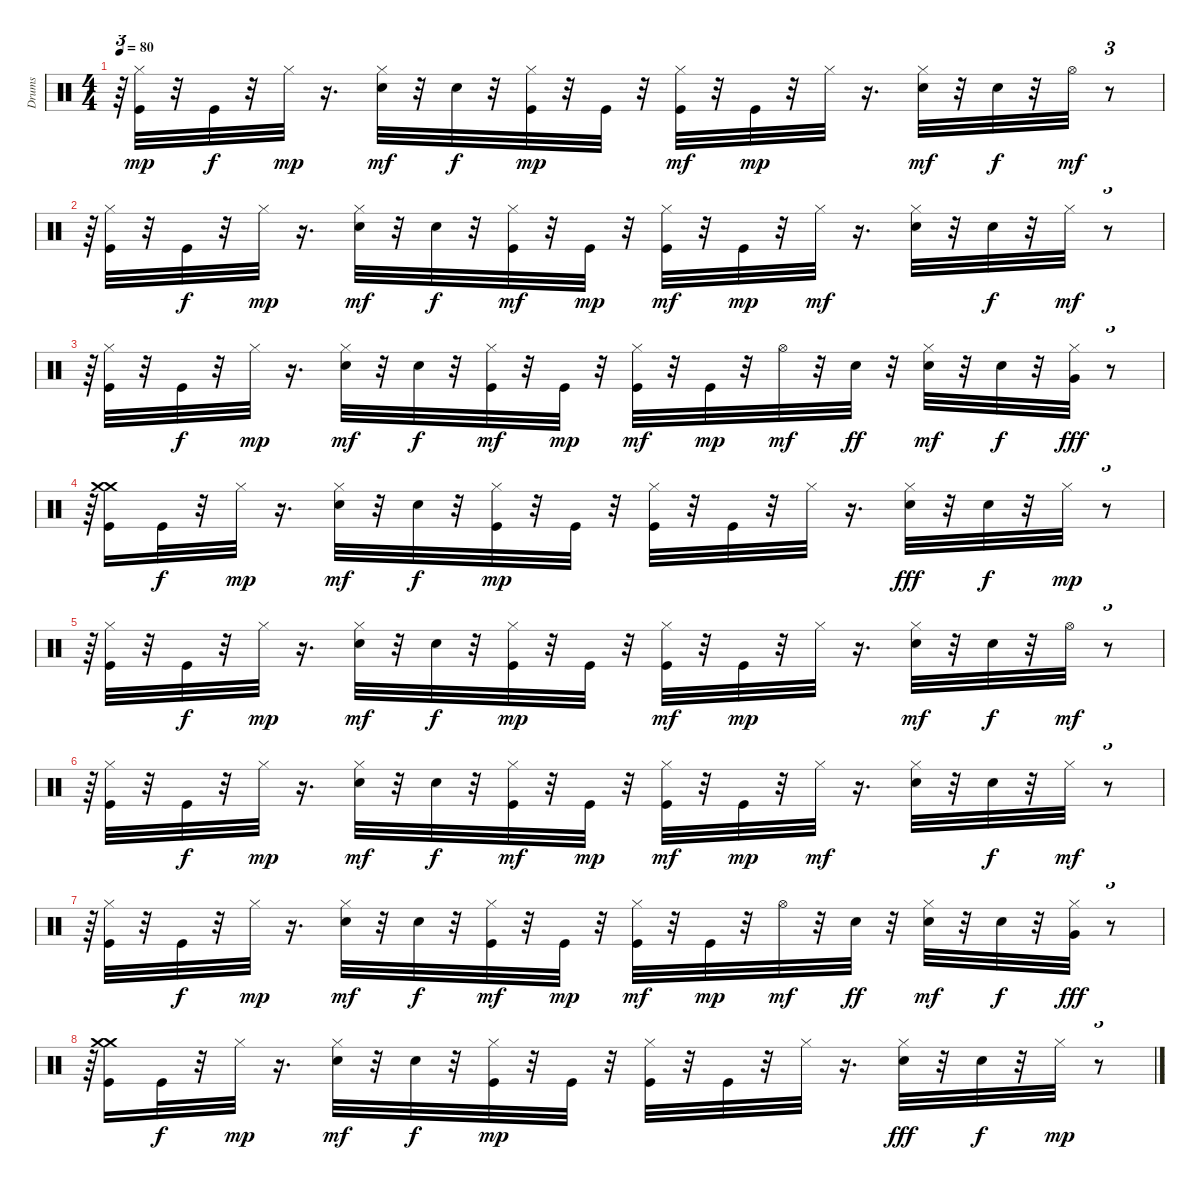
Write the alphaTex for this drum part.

\track ("Drums" "Drums") {instrument percussion}
\staff {score}
\articulation defaults
\ts (4 4)
\tempo 80
\clef neutral
\ks c
r.64{tu (3 2) dy mp} ("Kick (hit)" "Hi-Hat (closed)").32 r.32 "Kick (hit)".32{dy f} r.32 "Hi-Hat (closed)".32{dy mp} r.16{d} ("Snare (hit) 2" "Hi-Hat (closed)").32{dy mf} r.32 "Snare (hit) 2".32{dy f} r.32 ("Kick (hit)" "Hi-Hat (closed)").32{dy mp} r.32 "Kick (hit)".32 r.32 ("Kick (hit)" "Hi-Hat (closed)").32{dy mf} r.32 "Kick (hit)".32{dy mp} r.32 "Hi-Hat (closed)".32 r.16{d} ("Snare (hit) 2" "Hi-Hat (closed)").32{dy mf} r.32 "Snare (hit) 2".32{dy f} r.32 "Hi-Hat (open)".32{dy mf} r.8{tu (3 2)} |
r.64{tu (3 2)} ("Kick (hit)" "Hi-Hat (closed)").32 r.32 "Kick (hit)".32{dy f} r.32 "Hi-Hat (closed)".32{dy mp} r.16{d} ("Snare (hit) 2" "Hi-Hat (closed)").32{dy mf} r.32 "Snare (hit) 2".32{dy f} r.32 ("Kick (hit)" "Hi-Hat (closed)").32{dy mf} r.32 "Kick (hit)".32{dy mp} r.32 ("Kick (hit)" "Hi-Hat (closed)").32{dy mf} r.32 "Kick (hit)".32{dy mp} r.32 "Hi-Hat (closed)".32{dy mf} r.16{d} ("Snare (hit) 2" "Hi-Hat (closed)").32 r.32 "Snare (hit) 2".32{dy f} r.32 "Hi-Hat (closed)".32{dy mf} r.8{tu (3 2)} |
r.64{tu (3 2)} ("Kick (hit)" "Hi-Hat (closed)").32 r.32 "Kick (hit)".32{dy f} r.32 "Hi-Hat (closed)".32{dy mp} r.16{d} ("Snare (hit) 2" "Hi-Hat (closed)").32{dy mf} r.32 "Snare (hit) 2".32{dy f} r.32 ("Kick (hit)" "Hi-Hat (closed)").32{dy mf} r.32 "Kick (hit)".32{dy mp} r.32 ("Kick (hit)" "Hi-Hat (closed)").32{dy mf} r.32 "Kick (hit)".32{dy mp} r.32 "Hi-Hat (open)".32{dy mf} r.32 "Snare (hit) 2".32{dy ff} r.32 ("Snare (hit) 2" "Hi-Hat (closed)").32{dy mf} r.32 "Snare (hit) 2".32{dy f} r.32 ("Hi-Hat (closed)" "Very Low Tom (hit)").32{dy fff} r.8{tu (3 2)} |
r.64{tu (3 2)} ("Kick (hit)" "Crash medium (hit)" "Crash medium (hit)").16 "Kick (hit)".32{dy f} r.32 "Hi-Hat (closed)".32{dy mp} r.16{d} ("Snare (hit) 2" "Hi-Hat (closed)").32{dy mf} r.32 "Snare (hit) 2".32{dy f} r.32 ("Kick (hit)" "Hi-Hat (closed)").32{dy mp} r.32 "Kick (hit)".32 r.32 ("Kick (hit)" "Hi-Hat (closed)").32 r.32 "Kick (hit)".32 r.32 "Hi-Hat (closed)".32 r.16{d} ("Snare (hit) 2" "Hi-Hat (closed)").32{dy fff} r.32 "Snare (hit) 2".32{dy f} r.32 "Hi-Hat (closed)".32{dy mp} r.8{tu (3 2)} |
r.64{tu (3 2)} ("Kick (hit)" "Hi-Hat (closed)").32 r.32 "Kick (hit)".32{dy f} r.32 "Hi-Hat (closed)".32{dy mp} r.16{d} ("Snare (hit) 2" "Hi-Hat (closed)").32{dy mf} r.32 "Snare (hit) 2".32{dy f} r.32 ("Kick (hit)" "Hi-Hat (closed)").32{dy mp} r.32 "Kick (hit)".32 r.32 ("Kick (hit)" "Hi-Hat (closed)").32{dy mf} r.32 "Kick (hit)".32{dy mp} r.32 "Hi-Hat (closed)".32 r.16{d} ("Snare (hit) 2" "Hi-Hat (closed)").32{dy mf} r.32 "Snare (hit) 2".32{dy f} r.32 "Hi-Hat (open)".32{dy mf} r.8{tu (3 2)} |
r.64{tu (3 2)} ("Kick (hit)" "Hi-Hat (closed)").32 r.32 "Kick (hit)".32{dy f} r.32 "Hi-Hat (closed)".32{dy mp} r.16{d} ("Snare (hit) 2" "Hi-Hat (closed)").32{dy mf} r.32 "Snare (hit) 2".32{dy f} r.32 ("Kick (hit)" "Hi-Hat (closed)").32{dy mf} r.32 "Kick (hit)".32{dy mp} r.32 ("Kick (hit)" "Hi-Hat (closed)").32{dy mf} r.32 "Kick (hit)".32{dy mp} r.32 "Hi-Hat (closed)".32{dy mf} r.16{d} ("Snare (hit) 2" "Hi-Hat (closed)").32 r.32 "Snare (hit) 2".32{dy f} r.32 "Hi-Hat (closed)".32{dy mf} r.8{tu (3 2)} |
r.64{tu (3 2)} ("Kick (hit)" "Hi-Hat (closed)").32 r.32 "Kick (hit)".32{dy f} r.32 "Hi-Hat (closed)".32{dy mp} r.16{d} ("Snare (hit) 2" "Hi-Hat (closed)").32{dy mf} r.32 "Snare (hit) 2".32{dy f} r.32 ("Kick (hit)" "Hi-Hat (closed)").32{dy mf} r.32 "Kick (hit)".32{dy mp} r.32 ("Kick (hit)" "Hi-Hat (closed)").32{dy mf} r.32 "Kick (hit)".32{dy mp} r.32 "Hi-Hat (open)".32{dy mf} r.32 "Snare (hit) 2".32{dy ff} r.32 ("Snare (hit) 2" "Hi-Hat (closed)").32{dy mf} r.32 "Snare (hit) 2".32{dy f} r.32 ("Hi-Hat (closed)" "Very Low Tom (hit)").32{dy fff} r.8{tu (3 2)} |
r.64{tu (3 2)} ("Kick (hit)" "Crash medium (hit)" "Crash medium (hit)").16 "Kick (hit)".32{dy f} r.32 "Hi-Hat (closed)".32{dy mp} r.16{d} ("Snare (hit) 2" "Hi-Hat (closed)").32{dy mf} r.32 "Snare (hit) 2".32{dy f} r.32 ("Kick (hit)" "Hi-Hat (closed)").32{dy mp} r.32 "Kick (hit)".32 r.32 ("Kick (hit)" "Hi-Hat (closed)").32 r.32 "Kick (hit)".32 r.32 "Hi-Hat (closed)".32 r.16{d} ("Snare (hit) 2" "Hi-Hat (closed)").32{dy fff} r.32 "Snare (hit) 2".32{dy f} r.32 "Hi-Hat (closed)".32{dy mp} r.8{tu (3 2)}
